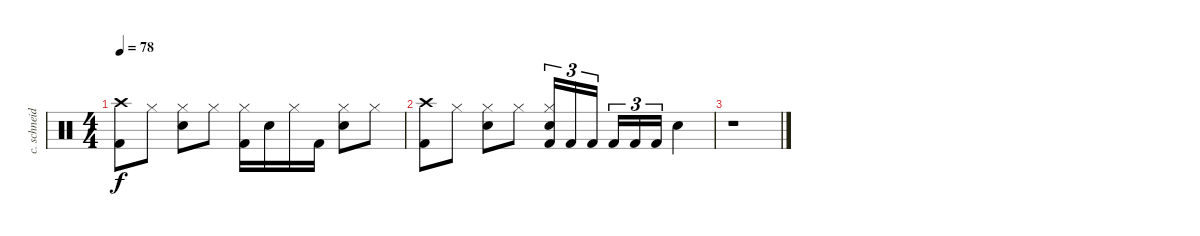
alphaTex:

\track ("c. schneider - drums" "c. schneid") {instrument percussion}
\staff {score}
\articulation defaults
\ts (4 4)
\tempo 78
\clef neutral
\ks c
("Crash high (hit)" "Kick (hit) 2").8{dy f} "Hi-Hat (closed)".8 ("Hi-Hat (closed)" "Snare (hit) 2").8 "Hi-Hat (closed)".8 ("Hi-Hat (closed)" "Kick (hit) 2").16 "Snare (hit) 2".16 "Hi-Hat (closed)".16 "Kick (hit) 2".16 ("Hi-Hat (closed)" "Snare (hit) 2").8 "Hi-Hat (closed)".8 |
("Crash high (hit)" "Kick (hit) 2").8 "Hi-Hat (closed)".8 ("Hi-Hat (closed)" "Snare (hit) 2").8 "Hi-Hat (closed)".8 ("Hi-Hat (closed)" "Snare (hit) 2" "Kick (hit) 2").16{tu (3 2)} "Kick (hit) 2".16{tu (3 2)} "Kick (hit) 2".16{tu (3 2) beam splitsecondary} "Kick (hit) 2".16{tu (3 2)} "Kick (hit) 2".16{tu (3 2)} "Kick (hit) 2".16{tu (3 2)} "Snare (hit) 2".4 |
r.1
